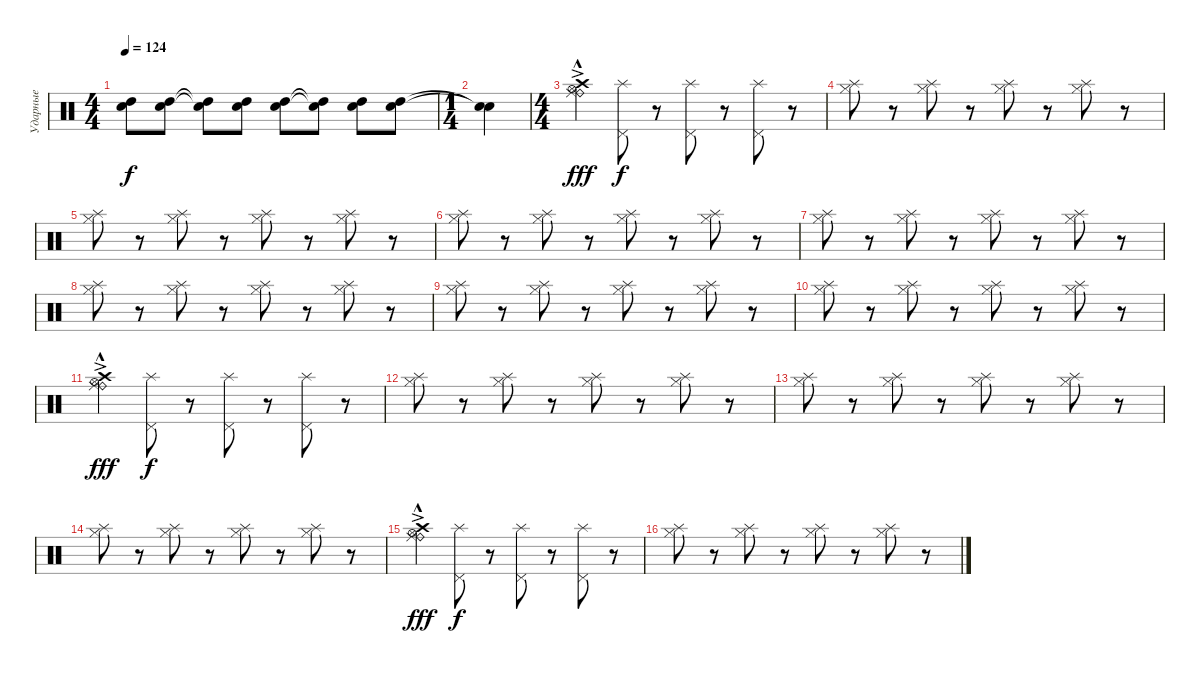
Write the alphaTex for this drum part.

\track ("Ударные" "Ударные") {instrument percussion}
\staff {score}
\articulation defaults
\ts (4 4)
\tempo 124
\clef neutral
\ks c
("High Tom (hit)" "Electric Snare (hit)").8{dy f} ("High Tom (hit)" "Electric Snare (hit)").8 ("High Tom (hit)"{t} "Electric Snare (hit)"{t}).8 ("High Tom (hit)" "Electric Snare (hit)").8 ("High Tom (hit)" "Electric Snare (hit)").8 ("High Tom (hit)"{t} "Electric Snare (hit)"{t}).8 ("High Tom (hit)" "Electric Snare (hit)").8 ("High Tom (hit)" "Electric Snare (hit)").8 |
\ts (1 4)
("Snare (hit)"{t} "Snare (hit)"{t}).4 |
\ts (4 4)
("Ride (bell)"{ac} "Ride (middle)"{hac} "Crash high (hit)" "Hi-Hat (open)").4{dy fff} ("Pedal Hi-Hat (hit)" "Splash (hit)").8{dy f} r.8 ("Pedal Hi-Hat (hit)" "Splash (hit)").8 r.8 ("Pedal Hi-Hat (hit)" "Splash (hit)").8 r.8 |
("Hi-Hat (closed)" "Splash (hit)").8 r.8 ("Hi-Hat (closed)" "Splash (hit)").8 r.8 ("Hi-Hat (closed)" "Splash (hit)").8 r.8 ("Hi-Hat (closed)" "Splash (hit)").8 r.8 |
("Hi-Hat (closed)" "Splash (hit)").8 r.8 ("Hi-Hat (closed)" "Splash (hit)").8 r.8 ("Hi-Hat (closed)" "Splash (hit)").8 r.8 ("Hi-Hat (closed)" "Splash (hit)").8 r.8 |
("Hi-Hat (closed)" "Splash (hit)").8 r.8 ("Hi-Hat (closed)" "Splash (hit)").8 r.8 ("Hi-Hat (closed)" "Splash (hit)").8 r.8 ("Hi-Hat (closed)" "Splash (hit)").8 r.8 |
("Hi-Hat (closed)" "Splash (hit)").8 r.8 ("Hi-Hat (closed)" "Splash (hit)").8 r.8 ("Hi-Hat (closed)" "Splash (hit)").8 r.8 ("Hi-Hat (closed)" "Splash (hit)").8 r.8 |
("Hi-Hat (closed)" "Splash (hit)").8 r.8 ("Hi-Hat (closed)" "Splash (hit)").8 r.8 ("Hi-Hat (closed)" "Splash (hit)").8 r.8 ("Hi-Hat (closed)" "Splash (hit)").8 r.8 |
("Hi-Hat (closed)" "Splash (hit)").8 r.8 ("Hi-Hat (closed)" "Splash (hit)").8 r.8 ("Hi-Hat (closed)" "Splash (hit)").8 r.8 ("Hi-Hat (closed)" "Splash (hit)").8 r.8 |
("Hi-Hat (closed)" "Splash (hit)").8 r.8 ("Hi-Hat (closed)" "Splash (hit)").8 r.8 ("Hi-Hat (closed)" "Splash (hit)").8 r.8 ("Hi-Hat (closed)" "Splash (hit)").8 r.8 |
("Ride (bell)"{ac} "Ride (middle)"{hac} "Crash high (hit)" "Hi-Hat (open)").4{dy fff} ("Pedal Hi-Hat (hit)" "Splash (hit)").8{dy f} r.8 ("Pedal Hi-Hat (hit)" "Splash (hit)").8 r.8 ("Pedal Hi-Hat (hit)" "Splash (hit)").8 r.8 |
("Hi-Hat (closed)" "Splash (hit)").8 r.8 ("Hi-Hat (closed)" "Splash (hit)").8 r.8 ("Hi-Hat (closed)" "Splash (hit)").8 r.8 ("Hi-Hat (closed)" "Splash (hit)").8 r.8 |
("Hi-Hat (closed)" "Splash (hit)").8 r.8 ("Hi-Hat (closed)" "Splash (hit)").8 r.8 ("Hi-Hat (closed)" "Splash (hit)").8 r.8 ("Hi-Hat (closed)" "Splash (hit)").8 r.8 |
("Hi-Hat (closed)" "Splash (hit)").8 r.8 ("Hi-Hat (closed)" "Splash (hit)").8 r.8 ("Hi-Hat (closed)" "Splash (hit)").8 r.8 ("Hi-Hat (closed)" "Splash (hit)").8 r.8 |
("Ride (bell)"{ac} "Ride (middle)"{hac} "Crash high (hit)" "Hi-Hat (open)").4{dy fff} ("Pedal Hi-Hat (hit)" "Splash (hit)").8{dy f} r.8 ("Pedal Hi-Hat (hit)" "Splash (hit)").8 r.8 ("Pedal Hi-Hat (hit)" "Splash (hit)").8 r.8 |
("Hi-Hat (closed)" "Splash (hit)").8 r.8 ("Hi-Hat (closed)" "Splash (hit)").8 r.8 ("Hi-Hat (closed)" "Splash (hit)").8 r.8 ("Hi-Hat (closed)" "Splash (hit)").8 r.8
